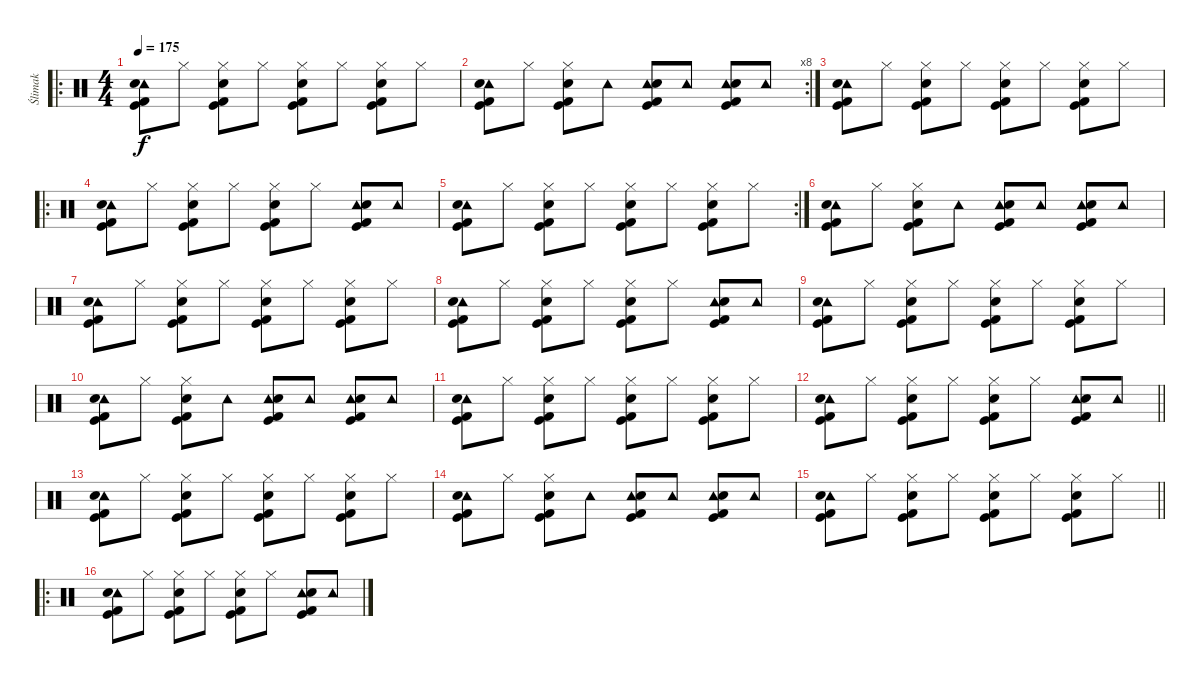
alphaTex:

\track ("Ślimak" "Ślimak") {instrument percussion}
\staff {score}
\articulation defaults
\ro
\ts (4 4)
\tempo 175
\clef neutral
\ks c
("Tambourine (hit)" "Electric Snare (hit)" "Kick (hit) 2" "Kick (hit)").8{dy f} "Hi-Hat (closed)".8 ("Hi-Hat (closed)" "Electric Snare (hit)" "Kick (hit) 2" "Kick (hit)").8 "Hi-Hat (closed)".8 ("Hi-Hat (closed)" "Electric Snare (hit)" "Kick (hit) 2" "Kick (hit)").8 "Hi-Hat (closed)".8 ("Hi-Hat (closed)" "Electric Snare (hit)" "Kick (hit) 2" "Kick (hit)").8 "Hi-Hat (closed)".8 |
\rc 8
("Tambourine (hit)" "Electric Snare (hit)" "Kick (hit) 2" "Kick (hit)").8 "Hi-Hat (closed)".8 ("Hi-Hat (closed)" "Electric Snare (hit)" "Kick (hit) 2" "Kick (hit)").8 "Tambourine (hit)".8 ("Tambourine (hit)" "Electric Snare (hit)" "Kick (hit) 2" "Kick (hit)").8 "Tambourine (hit)".8 ("Tambourine (hit)" "Electric Snare (hit)" "Kick (hit) 2" "Kick (hit)").8 "Tambourine (hit)".8 |
("Tambourine (hit)" "Electric Snare (hit)" "Kick (hit) 2" "Kick (hit)").8 "Hi-Hat (closed)".8 ("Hi-Hat (closed)" "Electric Snare (hit)" "Kick (hit) 2" "Kick (hit)").8 "Hi-Hat (closed)".8 ("Hi-Hat (closed)" "Electric Snare (hit)" "Kick (hit) 2" "Kick (hit)").8 "Hi-Hat (closed)".8 ("Hi-Hat (closed)" "Electric Snare (hit)" "Kick (hit) 2" "Kick (hit)").8 "Hi-Hat (closed)".8 |
\ro
("Tambourine (hit)" "Electric Snare (hit)" "Kick (hit) 2" "Kick (hit)").8 "Hi-Hat (closed)".8 ("Hi-Hat (closed)" "Electric Snare (hit)" "Kick (hit) 2" "Kick (hit)").8 "Hi-Hat (closed)".8 ("Hi-Hat (closed)" "Electric Snare (hit)" "Kick (hit) 2" "Kick (hit)").8 "Hi-Hat (closed)".8 ("Tambourine (hit)" "Electric Snare (hit)" "Kick (hit) 2" "Kick (hit)").8 "Tambourine (hit)".8 |
\rc 2
("Tambourine (hit)" "Electric Snare (hit)" "Kick (hit) 2" "Kick (hit)").8 "Hi-Hat (closed)".8 ("Hi-Hat (closed)" "Electric Snare (hit)" "Kick (hit) 2" "Kick (hit)").8 "Hi-Hat (closed)".8 ("Hi-Hat (closed)" "Electric Snare (hit)" "Kick (hit) 2" "Kick (hit)").8 "Hi-Hat (closed)".8 ("Hi-Hat (closed)" "Electric Snare (hit)" "Kick (hit) 2" "Kick (hit)").8 "Hi-Hat (closed)".8 |
("Tambourine (hit)" "Electric Snare (hit)" "Kick (hit) 2" "Kick (hit)").8 "Hi-Hat (closed)".8 ("Hi-Hat (closed)" "Electric Snare (hit)" "Kick (hit) 2" "Kick (hit)").8 "Tambourine (hit)".8 ("Tambourine (hit)" "Electric Snare (hit)" "Kick (hit) 2" "Kick (hit)").8 "Tambourine (hit)".8 ("Tambourine (hit)" "Electric Snare (hit)" "Kick (hit) 2" "Kick (hit)").8 "Tambourine (hit)".8 |
("Tambourine (hit)" "Electric Snare (hit)" "Kick (hit) 2" "Kick (hit)").8 "Hi-Hat (closed)".8 ("Hi-Hat (closed)" "Electric Snare (hit)" "Kick (hit) 2" "Kick (hit)").8 "Hi-Hat (closed)".8 ("Hi-Hat (closed)" "Electric Snare (hit)" "Kick (hit) 2" "Kick (hit)").8 "Hi-Hat (closed)".8 ("Hi-Hat (closed)" "Electric Snare (hit)" "Kick (hit) 2" "Kick (hit)").8 "Hi-Hat (closed)".8 |
("Tambourine (hit)" "Electric Snare (hit)" "Kick (hit) 2" "Kick (hit)").8 "Hi-Hat (closed)".8 ("Hi-Hat (closed)" "Electric Snare (hit)" "Kick (hit) 2" "Kick (hit)").8 "Hi-Hat (closed)".8 ("Hi-Hat (closed)" "Electric Snare (hit)" "Kick (hit) 2" "Kick (hit)").8 "Hi-Hat (closed)".8 ("Tambourine (hit)" "Electric Snare (hit)" "Kick (hit) 2" "Kick (hit)").8 "Tambourine (hit)".8 |
("Tambourine (hit)" "Electric Snare (hit)" "Kick (hit) 2" "Kick (hit)").8 "Hi-Hat (closed)".8 ("Hi-Hat (closed)" "Electric Snare (hit)" "Kick (hit) 2" "Kick (hit)").8 "Hi-Hat (closed)".8 ("Hi-Hat (closed)" "Electric Snare (hit)" "Kick (hit) 2" "Kick (hit)").8 "Hi-Hat (closed)".8 ("Hi-Hat (closed)" "Electric Snare (hit)" "Kick (hit) 2" "Kick (hit)").8 "Hi-Hat (closed)".8 |
("Tambourine (hit)" "Electric Snare (hit)" "Kick (hit) 2" "Kick (hit)").8 "Hi-Hat (closed)".8 ("Hi-Hat (closed)" "Electric Snare (hit)" "Kick (hit) 2" "Kick (hit)").8 "Tambourine (hit)".8 ("Tambourine (hit)" "Electric Snare (hit)" "Kick (hit) 2" "Kick (hit)").8 "Tambourine (hit)".8 ("Tambourine (hit)" "Electric Snare (hit)" "Kick (hit) 2" "Kick (hit)").8 "Tambourine (hit)".8 |
("Tambourine (hit)" "Electric Snare (hit)" "Kick (hit) 2" "Kick (hit)").8 "Hi-Hat (closed)".8 ("Hi-Hat (closed)" "Electric Snare (hit)" "Kick (hit) 2" "Kick (hit)").8 "Hi-Hat (closed)".8 ("Hi-Hat (closed)" "Electric Snare (hit)" "Kick (hit) 2" "Kick (hit)").8 "Hi-Hat (closed)".8 ("Hi-Hat (closed)" "Electric Snare (hit)" "Kick (hit) 2" "Kick (hit)").8 "Hi-Hat (closed)".8 |
\barLineRight lightlight
("Tambourine (hit)" "Electric Snare (hit)" "Kick (hit) 2" "Kick (hit)").8 "Hi-Hat (closed)".8 ("Hi-Hat (closed)" "Electric Snare (hit)" "Kick (hit) 2" "Kick (hit)").8 "Hi-Hat (closed)".8 ("Hi-Hat (closed)" "Electric Snare (hit)" "Kick (hit) 2" "Kick (hit)").8 "Hi-Hat (closed)".8 ("Tambourine (hit)" "Electric Snare (hit)" "Kick (hit) 2" "Kick (hit)").8 "Tambourine (hit)".8 |
("Tambourine (hit)" "Electric Snare (hit)" "Kick (hit) 2" "Kick (hit)").8 "Hi-Hat (closed)".8 ("Hi-Hat (closed)" "Electric Snare (hit)" "Kick (hit) 2" "Kick (hit)").8 "Hi-Hat (closed)".8 ("Hi-Hat (closed)" "Electric Snare (hit)" "Kick (hit) 2" "Kick (hit)").8 "Hi-Hat (closed)".8 ("Hi-Hat (closed)" "Electric Snare (hit)" "Kick (hit) 2" "Kick (hit)").8 "Hi-Hat (closed)".8 |
("Tambourine (hit)" "Electric Snare (hit)" "Kick (hit) 2" "Kick (hit)").8 "Hi-Hat (closed)".8 ("Hi-Hat (closed)" "Electric Snare (hit)" "Kick (hit) 2" "Kick (hit)").8 "Tambourine (hit)".8 ("Tambourine (hit)" "Electric Snare (hit)" "Kick (hit) 2" "Kick (hit)").8 "Tambourine (hit)".8 ("Tambourine (hit)" "Electric Snare (hit)" "Kick (hit) 2" "Kick (hit)").8 "Tambourine (hit)".8 |
\barLineRight lightlight
("Tambourine (hit)" "Electric Snare (hit)" "Kick (hit) 2" "Kick (hit)").8 "Hi-Hat (closed)".8 ("Hi-Hat (closed)" "Electric Snare (hit)" "Kick (hit) 2" "Kick (hit)").8 "Hi-Hat (closed)".8 ("Hi-Hat (closed)" "Electric Snare (hit)" "Kick (hit) 2" "Kick (hit)").8 "Hi-Hat (closed)".8 ("Hi-Hat (closed)" "Electric Snare (hit)" "Kick (hit) 2" "Kick (hit)").8 "Hi-Hat (closed)".8 |
\ro
("Tambourine (hit)" "Electric Snare (hit)" "Kick (hit) 2" "Kick (hit)").8 "Hi-Hat (closed)".8 ("Hi-Hat (closed)" "Electric Snare (hit)" "Kick (hit) 2" "Kick (hit)").8 "Hi-Hat (closed)".8 ("Hi-Hat (closed)" "Electric Snare (hit)" "Kick (hit) 2" "Kick (hit)").8 "Hi-Hat (closed)".8 ("Tambourine (hit)" "Electric Snare (hit)" "Kick (hit) 2" "Kick (hit)").8 "Tambourine (hit)".8
